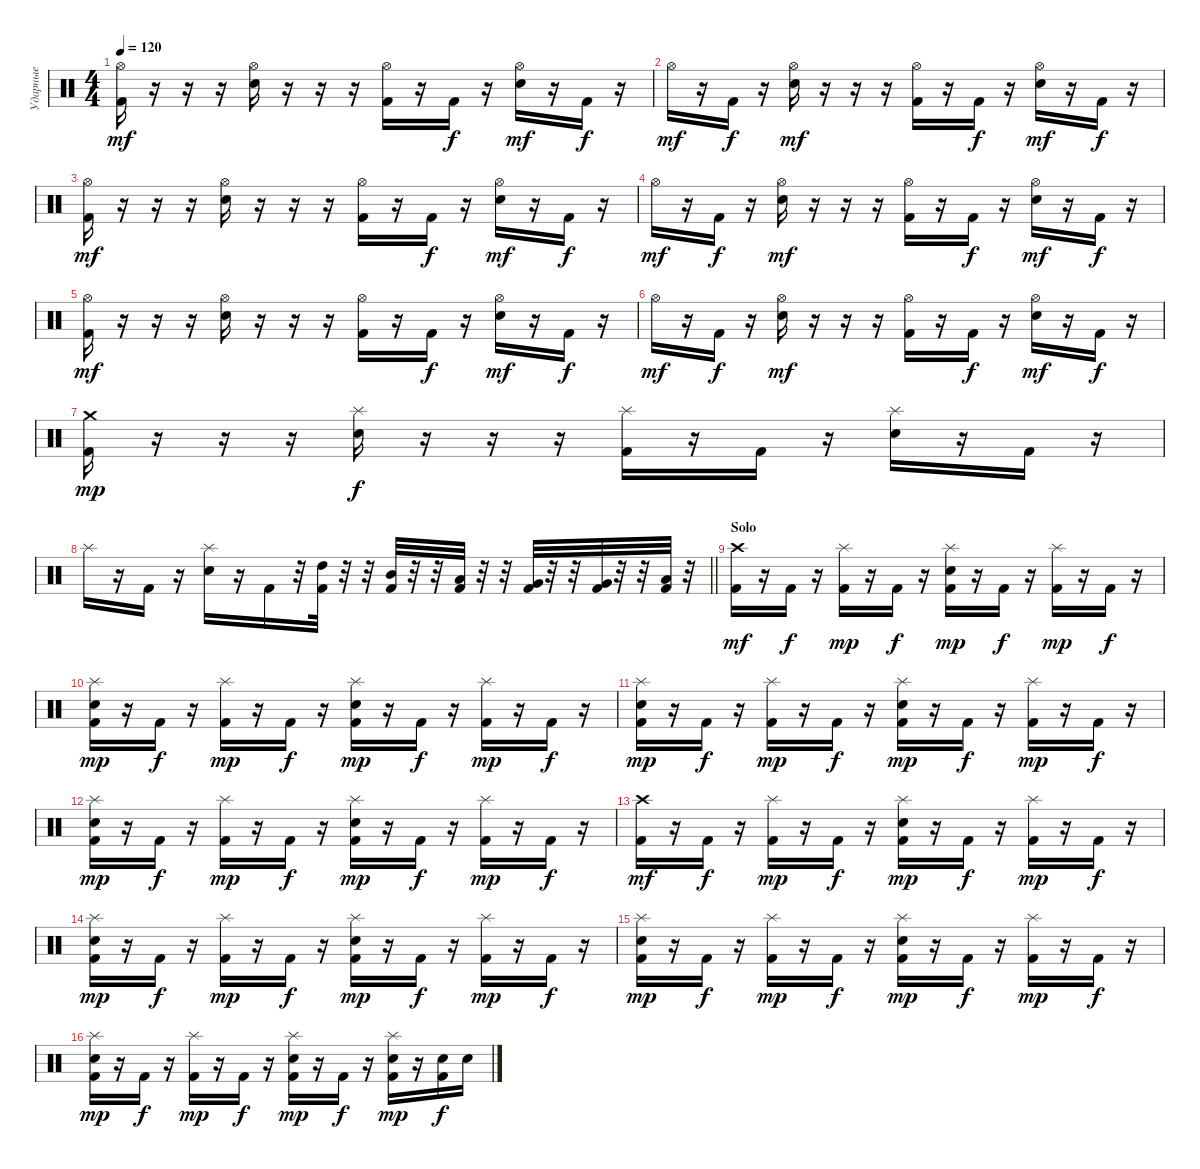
\track ("Ударные" "Ударные") {instrument percussion}
\staff {score}
\articulation defaults
\ts (4 4)
\tempo 120
\clef neutral
\ks c
("Kick (hit) 2" "Hi-Hat (open)").16{dy mf} r.16 r.16 r.16 ("Hi-Hat (open)" "Snare (hit) 2").16 r.16 r.16 r.16 ("Kick (hit) 2" "Hi-Hat (open)").16 r.16 "Kick (hit) 2".16{dy f} r.16 ("Hi-Hat (open)" "Snare (hit) 2").16{dy mf} r.16 "Kick (hit) 2".16{dy f} r.16 |
"Hi-Hat (open)".16{dy mf} r.16 "Kick (hit) 2".16{dy f} r.16 ("Hi-Hat (open)" "Snare (hit) 2").16{dy mf} r.16 r.16 r.16 ("Kick (hit) 2" "Hi-Hat (open)").16 r.16 "Kick (hit) 2".16{dy f} r.16 ("Hi-Hat (open)" "Snare (hit) 2").16{dy mf} r.16 "Kick (hit) 2".16{dy f} r.16 |
("Kick (hit) 2" "Hi-Hat (open)").16{dy mf} r.16 r.16 r.16 ("Hi-Hat (open)" "Snare (hit) 2").16 r.16 r.16 r.16 ("Kick (hit) 2" "Hi-Hat (open)").16 r.16 "Kick (hit) 2".16{dy f} r.16 ("Hi-Hat (open)" "Snare (hit) 2").16{dy mf} r.16 "Kick (hit) 2".16{dy f} r.16 |
"Hi-Hat (open)".16{dy mf} r.16 "Kick (hit) 2".16{dy f} r.16 ("Hi-Hat (open)" "Snare (hit) 2").16{dy mf} r.16 r.16 r.16 ("Kick (hit) 2" "Hi-Hat (open)").16 r.16 "Kick (hit) 2".16{dy f} r.16 ("Hi-Hat (open)" "Snare (hit) 2").16{dy mf} r.16 "Kick (hit) 2".16{dy f} r.16 |
("Kick (hit) 2" "Hi-Hat (open)").16{dy mf} r.16 r.16 r.16 ("Hi-Hat (open)" "Snare (hit) 2").16 r.16 r.16 r.16 ("Kick (hit) 2" "Hi-Hat (open)").16 r.16 "Kick (hit) 2".16{dy f} r.16 ("Hi-Hat (open)" "Snare (hit) 2").16{dy mf} r.16 "Kick (hit) 2".16{dy f} r.16 |
"Hi-Hat (open)".16{dy mf} r.16 "Kick (hit) 2".16{dy f} r.16 ("Hi-Hat (open)" "Snare (hit) 2").16{dy mf} r.16 r.16 r.16 ("Kick (hit) 2" "Hi-Hat (open)").16 r.16 "Kick (hit) 2".16{dy f} r.16 ("Hi-Hat (open)" "Snare (hit) 2").16{dy mf} r.16 "Kick (hit) 2".16{dy f} r.16 |
("Kick (hit) 2" "Crash medium (hit)").16{dy mp} r.16 r.16 r.16 ("Splash (hit)" "Snare (hit) 2").16{dy f} r.16 r.16 r.16 ("Kick (hit) 2" "Splash (hit)").16 r.16 "Kick (hit) 2".16 r.16 ("Splash (hit)" "Snare (hit) 2").16 r.16 "Kick (hit) 2".16 r.16 |
\barLineRight lightlight "Splash (hit)".16
r.16 "Kick (hit) 2".16 r.16 ("Splash (hit)" "Snare (hit) 2").16 r.16 "Kick (hit) 2".16 r.32 ("High Tom (hit)" "Kick (hit) 2").32 r.32 r.32 ("Mid Tom (hit)" "Kick (hit) 2").32 r.32 r.32 ("Low Tom (hit)" "Kick (hit) 2").32 r.32 r.32 ("Very Low Tom (hit)" "Kick (hit) 2").32 r.32 r.32 ("Very Low Tom (hit)" "Kick (hit) 2").32 r.32 r.32 ("Low Floor Tom (hit)" "Kick (hit) 2").32 r.32 |
\section ("" "Solo")
("Kick (hit) 2" "Crash high (hit)").16{dy mf} r.16 "Kick (hit) 2".16{dy f} r.16 ("Kick (hit) 2" "Splash (hit)").16{dy mp} r.16 "Kick (hit) 2".16{dy f} r.16 ("Kick (hit) 2" "Splash (hit)" "Snare (hit) 2").16{dy mp} r.16 "Kick (hit) 2".16{dy f} r.16 ("Kick (hit) 2" "Splash (hit)").16{dy mp} r.16 "Kick (hit) 2".16{dy f} r.16 |
("Kick (hit) 2" "Splash (hit)" "Snare (hit) 2").16{dy mp} r.16 "Kick (hit) 2".16{dy f} r.16 ("Kick (hit) 2" "Splash (hit)").16{dy mp} r.16 "Kick (hit) 2".16{dy f} r.16 ("Kick (hit) 2" "Splash (hit)" "Snare (hit) 2").16{dy mp} r.16 "Kick (hit) 2".16{dy f} r.16 ("Kick (hit) 2" "Splash (hit)").16{dy mp} r.16 "Kick (hit) 2".16{dy f} r.16 |
("Kick (hit) 2" "Splash (hit)" "Snare (hit) 2").16{dy mp} r.16 "Kick (hit) 2".16{dy f} r.16 ("Kick (hit) 2" "Splash (hit)").16{dy mp} r.16 "Kick (hit) 2".16{dy f} r.16 ("Kick (hit) 2" "Splash (hit)" "Snare (hit) 2").16{dy mp} r.16 "Kick (hit) 2".16{dy f} r.16 ("Kick (hit) 2" "Splash (hit)").16{dy mp} r.16 "Kick (hit) 2".16{dy f} r.16 |
("Kick (hit) 2" "Splash (hit)" "Snare (hit) 2").16{dy mp} r.16 "Kick (hit) 2".16{dy f} r.16 ("Kick (hit) 2" "Splash (hit)").16{dy mp} r.16 "Kick (hit) 2".16{dy f} r.16 ("Kick (hit) 2" "Splash (hit)" "Snare (hit) 2").16{dy mp} r.16 "Kick (hit) 2".16{dy f} r.16 ("Kick (hit) 2" "Splash (hit)").16{dy mp} r.16 "Kick (hit) 2".16{dy f} r.16 |
("Kick (hit) 2" "Crash high (hit)").16{dy mf} r.16 "Kick (hit) 2".16{dy f} r.16 ("Kick (hit) 2" "Splash (hit)").16{dy mp} r.16 "Kick (hit) 2".16{dy f} r.16 ("Kick (hit) 2" "Splash (hit)" "Snare (hit) 2").16{dy mp} r.16 "Kick (hit) 2".16{dy f} r.16 ("Kick (hit) 2" "Splash (hit)").16{dy mp} r.16 "Kick (hit) 2".16{dy f} r.16 |
("Kick (hit) 2" "Splash (hit)" "Snare (hit) 2").16{dy mp} r.16 "Kick (hit) 2".16{dy f} r.16 ("Kick (hit) 2" "Splash (hit)").16{dy mp} r.16 "Kick (hit) 2".16{dy f} r.16 ("Kick (hit) 2" "Splash (hit)" "Snare (hit) 2").16{dy mp} r.16 "Kick (hit) 2".16{dy f} r.16 ("Kick (hit) 2" "Splash (hit)").16{dy mp} r.16 "Kick (hit) 2".16{dy f} r.16 |
("Kick (hit) 2" "Splash (hit)" "Snare (hit) 2").16{dy mp} r.16 "Kick (hit) 2".16{dy f} r.16 ("Kick (hit) 2" "Splash (hit)").16{dy mp} r.16 "Kick (hit) 2".16{dy f} r.16 ("Kick (hit) 2" "Splash (hit)" "Snare (hit) 2").16{dy mp} r.16 "Kick (hit) 2".16{dy f} r.16 ("Kick (hit) 2" "Splash (hit)").16{dy mp} r.16 "Kick (hit) 2".16{dy f} r.16 |
("Kick (hit) 2" "Splash (hit)" "Snare (hit) 2").16{dy mp} r.16 "Kick (hit) 2".16{dy f} r.16 ("Kick (hit) 2" "Splash (hit)").16{dy mp} r.16 "Kick (hit) 2".16{dy f} r.16 ("Kick (hit) 2" "Splash (hit)" "Snare (hit) 2").16{dy mp} r.16 "Kick (hit) 2".16{dy f} r.16 ("Kick (hit) 2" "Splash (hit)" "Snare (hit) 2").16{dy mp} r.16 ("Kick (hit) 2" "Snare (hit) 2").16{dy f} "Snare (hit) 2".16
